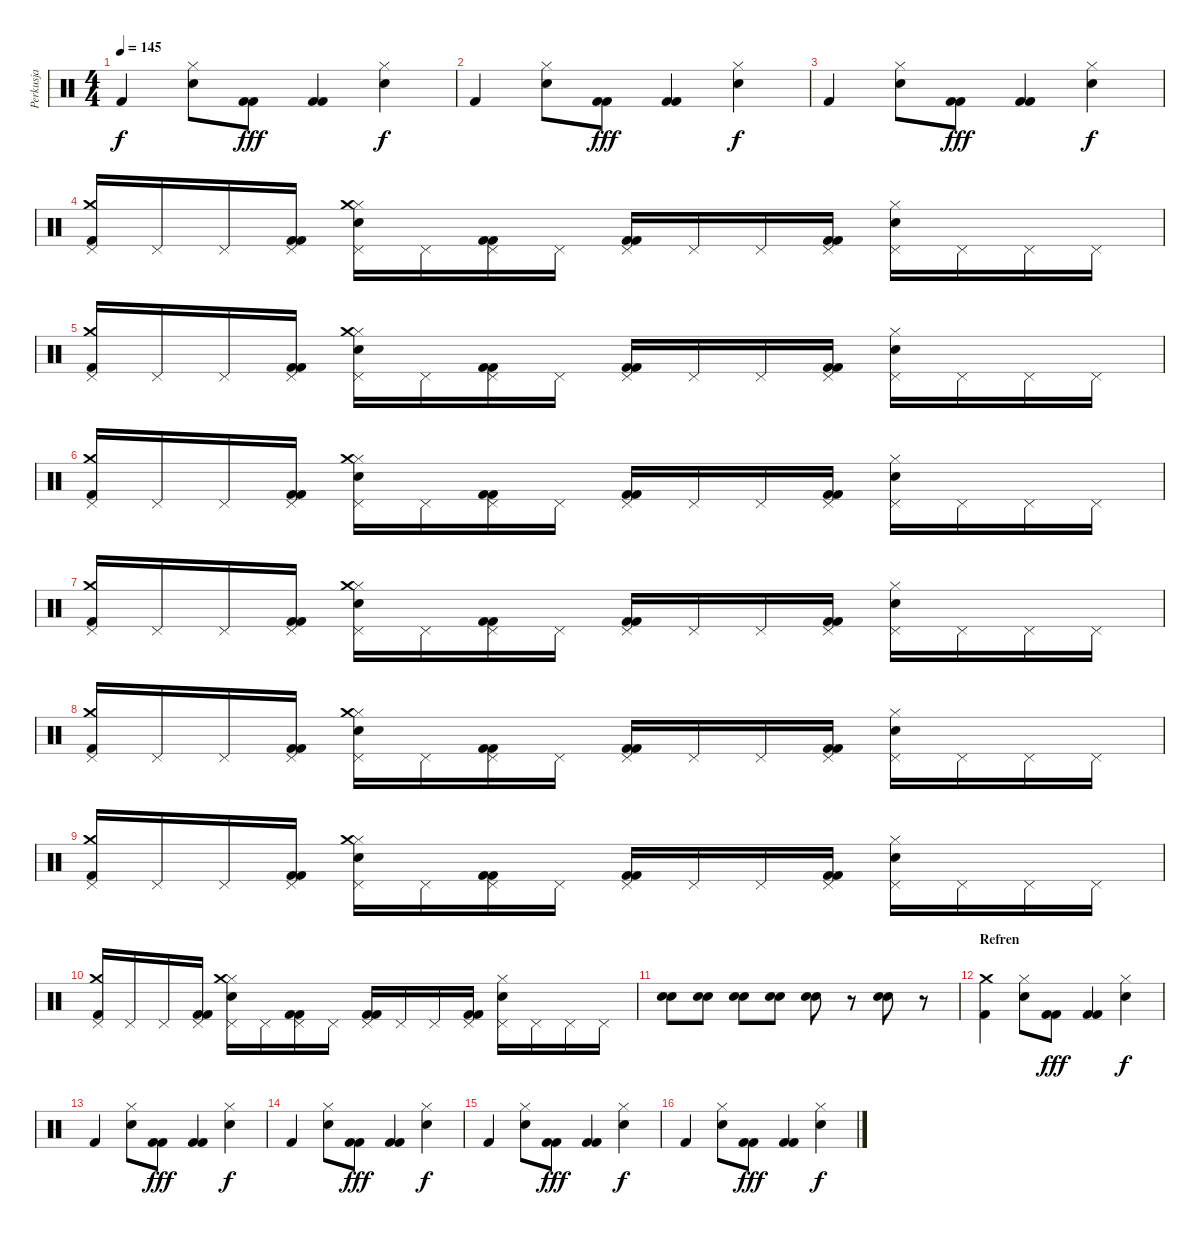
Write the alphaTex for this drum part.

\track ("Perkusja" "Perkusja") {instrument percussion}
\staff {score}
\articulation defaults
\ts (4 4)
\tempo 145
\clef neutral
\ks c "Kick (hit) 2".4{dy f}
("Hi-Hat (closed)" "Snare (hit) 2").8 ("Kick (hit) 2" "Kick (hit) 2").8{dy fff} ("Kick (hit) 2" "Kick (hit) 2").4 ("Hi-Hat (closed)" "Snare (hit) 2").4{dy f} |
"Kick (hit) 2".4 ("Hi-Hat (closed)" "Snare (hit) 2").8 ("Kick (hit) 2" "Kick (hit) 2").8{dy fff} ("Kick (hit) 2" "Kick (hit) 2").4 ("Hi-Hat (closed)" "Snare (hit) 2").4{dy f} |
"Kick (hit) 2".4 ("Hi-Hat (closed)" "Snare (hit) 2").8 ("Kick (hit) 2" "Kick (hit) 2").8{dy fff} ("Kick (hit) 2" "Kick (hit) 2").4 ("Hi-Hat (closed)" "Snare (hit) 2").4{dy f} |
("Kick (hit) 2" "Crash medium (hit)" "Pedal Hi-Hat (hit)").16 "Pedal Hi-Hat (hit)".16 "Pedal Hi-Hat (hit)".16 ("Kick (hit) 2" "Kick (hit) 2" "Pedal Hi-Hat (hit)").16 ("Hi-Hat (closed)" "Snare (hit) 2" "Crash medium (hit)" "Pedal Hi-Hat (hit)").16 "Pedal Hi-Hat (hit)".16 ("Kick (hit) 2" "Kick (hit) 2" "Pedal Hi-Hat (hit)").16 "Pedal Hi-Hat (hit)".16 ("Kick (hit) 2" "Kick (hit) 2" "Pedal Hi-Hat (hit)").16 "Pedal Hi-Hat (hit)".16 "Pedal Hi-Hat (hit)".16 ("Kick (hit) 2" "Kick (hit) 2" "Pedal Hi-Hat (hit)").16 ("Hi-Hat (closed)" "Snare (hit) 2" "Pedal Hi-Hat (hit)").16 "Pedal Hi-Hat (hit)".16 "Pedal Hi-Hat (hit)".16 "Pedal Hi-Hat (hit)".16 |
("Kick (hit) 2" "Crash medium (hit)" "Pedal Hi-Hat (hit)").16 "Pedal Hi-Hat (hit)".16 "Pedal Hi-Hat (hit)".16 ("Kick (hit) 2" "Kick (hit) 2" "Pedal Hi-Hat (hit)").16 ("Hi-Hat (closed)" "Snare (hit) 2" "Crash medium (hit)" "Pedal Hi-Hat (hit)").16 "Pedal Hi-Hat (hit)".16 ("Kick (hit) 2" "Kick (hit) 2" "Pedal Hi-Hat (hit)").16 "Pedal Hi-Hat (hit)".16 ("Kick (hit) 2" "Kick (hit) 2" "Pedal Hi-Hat (hit)").16 "Pedal Hi-Hat (hit)".16 "Pedal Hi-Hat (hit)".16 ("Kick (hit) 2" "Kick (hit) 2" "Pedal Hi-Hat (hit)").16 ("Hi-Hat (closed)" "Snare (hit) 2" "Pedal Hi-Hat (hit)").16 "Pedal Hi-Hat (hit)".16 "Pedal Hi-Hat (hit)".16 "Pedal Hi-Hat (hit)".16 |
("Kick (hit) 2" "Crash medium (hit)" "Pedal Hi-Hat (hit)").16 "Pedal Hi-Hat (hit)".16 "Pedal Hi-Hat (hit)".16 ("Kick (hit) 2" "Kick (hit) 2" "Pedal Hi-Hat (hit)").16 ("Hi-Hat (closed)" "Snare (hit) 2" "Crash medium (hit)" "Pedal Hi-Hat (hit)").16 "Pedal Hi-Hat (hit)".16 ("Kick (hit) 2" "Kick (hit) 2" "Pedal Hi-Hat (hit)").16 "Pedal Hi-Hat (hit)".16 ("Kick (hit) 2" "Kick (hit) 2" "Pedal Hi-Hat (hit)").16 "Pedal Hi-Hat (hit)".16 "Pedal Hi-Hat (hit)".16 ("Kick (hit) 2" "Kick (hit) 2" "Pedal Hi-Hat (hit)").16 ("Hi-Hat (closed)" "Snare (hit) 2" "Pedal Hi-Hat (hit)").16 "Pedal Hi-Hat (hit)".16 "Pedal Hi-Hat (hit)".16 "Pedal Hi-Hat (hit)".16 |
("Kick (hit) 2" "Crash medium (hit)" "Pedal Hi-Hat (hit)").16 "Pedal Hi-Hat (hit)".16 "Pedal Hi-Hat (hit)".16 ("Kick (hit) 2" "Kick (hit) 2" "Pedal Hi-Hat (hit)").16 ("Hi-Hat (closed)" "Snare (hit) 2" "Crash medium (hit)" "Pedal Hi-Hat (hit)").16 "Pedal Hi-Hat (hit)".16 ("Kick (hit) 2" "Kick (hit) 2" "Pedal Hi-Hat (hit)").16 "Pedal Hi-Hat (hit)".16 ("Kick (hit) 2" "Kick (hit) 2" "Pedal Hi-Hat (hit)").16 "Pedal Hi-Hat (hit)".16 "Pedal Hi-Hat (hit)".16 ("Kick (hit) 2" "Kick (hit) 2" "Pedal Hi-Hat (hit)").16 ("Hi-Hat (closed)" "Snare (hit) 2" "Pedal Hi-Hat (hit)").16 "Pedal Hi-Hat (hit)".16 "Pedal Hi-Hat (hit)".16 "Pedal Hi-Hat (hit)".16 |
("Kick (hit) 2" "Crash medium (hit)" "Pedal Hi-Hat (hit)").16 "Pedal Hi-Hat (hit)".16 "Pedal Hi-Hat (hit)".16 ("Kick (hit) 2" "Kick (hit) 2" "Pedal Hi-Hat (hit)").16 ("Hi-Hat (closed)" "Snare (hit) 2" "Crash medium (hit)" "Pedal Hi-Hat (hit)").16 "Pedal Hi-Hat (hit)".16 ("Kick (hit) 2" "Kick (hit) 2" "Pedal Hi-Hat (hit)").16 "Pedal Hi-Hat (hit)".16 ("Kick (hit) 2" "Kick (hit) 2" "Pedal Hi-Hat (hit)").16 "Pedal Hi-Hat (hit)".16 "Pedal Hi-Hat (hit)".16 ("Kick (hit) 2" "Kick (hit) 2" "Pedal Hi-Hat (hit)").16 ("Hi-Hat (closed)" "Snare (hit) 2" "Pedal Hi-Hat (hit)").16 "Pedal Hi-Hat (hit)".16 "Pedal Hi-Hat (hit)".16 "Pedal Hi-Hat (hit)".16 |
("Kick (hit) 2" "Crash medium (hit)" "Pedal Hi-Hat (hit)").16 "Pedal Hi-Hat (hit)".16 "Pedal Hi-Hat (hit)".16 ("Kick (hit) 2" "Kick (hit) 2" "Pedal Hi-Hat (hit)").16 ("Hi-Hat (closed)" "Snare (hit) 2" "Crash medium (hit)" "Pedal Hi-Hat (hit)").16 "Pedal Hi-Hat (hit)".16 ("Kick (hit) 2" "Kick (hit) 2" "Pedal Hi-Hat (hit)").16 "Pedal Hi-Hat (hit)".16 ("Kick (hit) 2" "Kick (hit) 2" "Pedal Hi-Hat (hit)").16 "Pedal Hi-Hat (hit)".16 "Pedal Hi-Hat (hit)".16 ("Kick (hit) 2" "Kick (hit) 2" "Pedal Hi-Hat (hit)").16 ("Hi-Hat (closed)" "Snare (hit) 2" "Pedal Hi-Hat (hit)").16 "Pedal Hi-Hat (hit)".16 "Pedal Hi-Hat (hit)".16 "Pedal Hi-Hat (hit)".16 |
("Kick (hit) 2" "Crash medium (hit)" "Pedal Hi-Hat (hit)").16 "Pedal Hi-Hat (hit)".16 "Pedal Hi-Hat (hit)".16 ("Kick (hit) 2" "Kick (hit) 2" "Pedal Hi-Hat (hit)").16 ("Hi-Hat (closed)" "Snare (hit) 2" "Crash medium (hit)" "Pedal Hi-Hat (hit)").16 "Pedal Hi-Hat (hit)".16 ("Kick (hit) 2" "Kick (hit) 2" "Pedal Hi-Hat (hit)").16 "Pedal Hi-Hat (hit)".16 ("Kick (hit) 2" "Kick (hit) 2" "Pedal Hi-Hat (hit)").16 "Pedal Hi-Hat (hit)".16 "Pedal Hi-Hat (hit)".16 ("Kick (hit) 2" "Kick (hit) 2" "Pedal Hi-Hat (hit)").16 ("Hi-Hat (closed)" "Snare (hit) 2" "Pedal Hi-Hat (hit)").16 "Pedal Hi-Hat (hit)".16 "Pedal Hi-Hat (hit)".16 "Pedal Hi-Hat (hit)".16 |
("Snare (hit) 2" "Snare (hit) 2").8 ("Snare (hit) 2" "Snare (hit) 2").8 ("Snare (hit) 2" "Snare (hit) 2").8 ("Snare (hit) 2" "Snare (hit) 2").8 ("Snare (hit) 2" "Snare (hit) 2").8 r.8 ("Snare (hit) 2" "Snare (hit) 2").8 r.8 |
\section ("" "Refren ")
("Kick (hit) 2" "Crash medium (hit)").4 ("Hi-Hat (closed)" "Snare (hit) 2").8 ("Kick (hit) 2" "Kick (hit) 2").8{dy fff} ("Kick (hit) 2" "Kick (hit) 2").4 ("Hi-Hat (closed)" "Snare (hit) 2").4{dy f} |
"Kick (hit) 2".4 ("Hi-Hat (closed)" "Snare (hit) 2").8 ("Kick (hit) 2" "Kick (hit) 2").8{dy fff} ("Kick (hit) 2" "Kick (hit) 2").4 ("Hi-Hat (closed)" "Snare (hit) 2").4{dy f} |
"Kick (hit) 2".4 ("Hi-Hat (closed)" "Snare (hit) 2").8 ("Kick (hit) 2" "Kick (hit) 2").8{dy fff} ("Kick (hit) 2" "Kick (hit) 2").4 ("Hi-Hat (closed)" "Snare (hit) 2").4{dy f} |
"Kick (hit) 2".4 ("Hi-Hat (closed)" "Snare (hit) 2").8 ("Kick (hit) 2" "Kick (hit) 2").8{dy fff} ("Kick (hit) 2" "Kick (hit) 2").4 ("Hi-Hat (closed)" "Snare (hit) 2").4{dy f} |
"Kick (hit) 2".4 ("Hi-Hat (closed)" "Snare (hit) 2").8 ("Kick (hit) 2" "Kick (hit) 2").8{dy fff} ("Kick (hit) 2" "Kick (hit) 2").4 ("Hi-Hat (closed)" "Snare (hit) 2").4{dy f}
